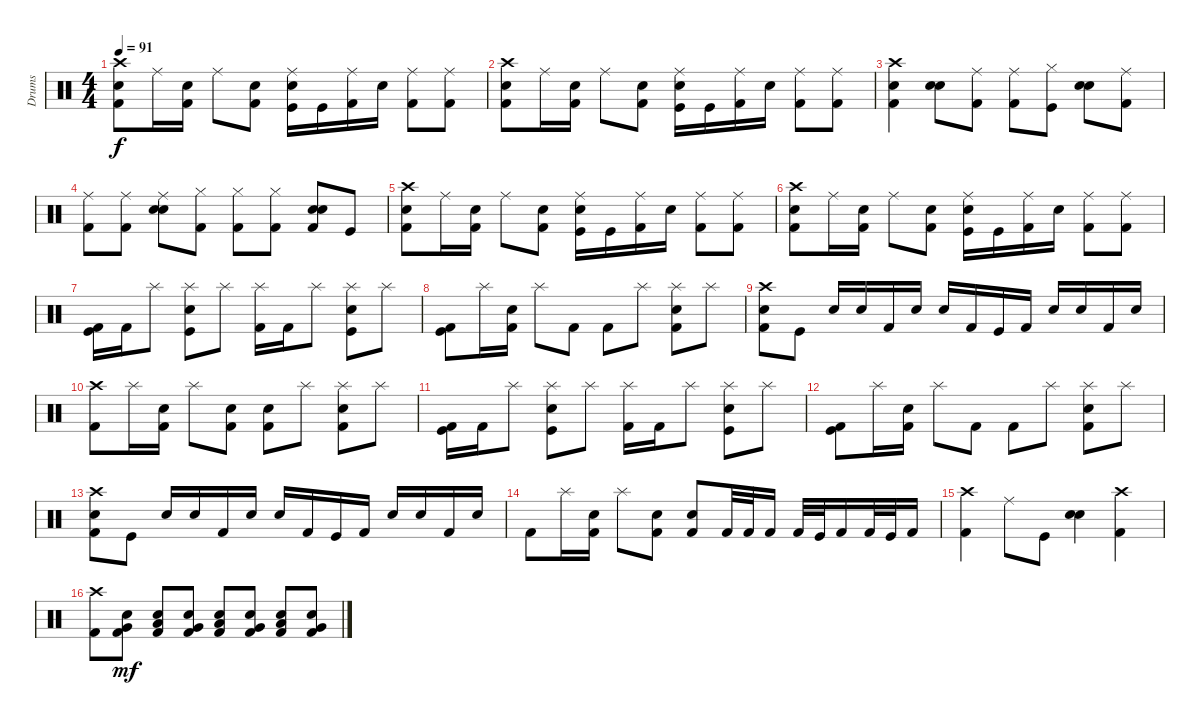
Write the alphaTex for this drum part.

\track ("Drums" "Drums") {instrument percussion}
\staff {score}
\articulation defaults
\ts (4 4)
\tempo 91
\clef neutral
\ks c
("Crash high (hit)" "Kick (hit) 2" "Snare (hit) 2").8{dy f} "Ride (middle)".16 ("Snare (hit) 2" "Kick (hit) 2").16 "Ride (middle)".8 ("Snare (hit) 2" "Kick (hit) 2").8 ("Ride (middle)" "Kick (hit)" "Snare (hit) 2").16 "Kick (hit)".16 ("Ride (middle)" "Kick (hit) 2").16 "Snare (hit) 2".16 ("Ride (middle)" "Kick (hit) 2").8 ("Ride (middle)" "Kick (hit) 2").8 |
("Crash high (hit)" "Kick (hit) 2" "Snare (hit) 2").8 "Ride (middle)".16 ("Snare (hit) 2" "Kick (hit) 2").16 "Ride (middle)".8 ("Snare (hit) 2" "Kick (hit) 2").8 ("Ride (middle)" "Kick (hit)" "Snare (hit) 2").16 "Kick (hit)".16 ("Ride (middle)" "Kick (hit) 2").16 "Snare (hit) 2".16 ("Ride (middle)" "Kick (hit) 2").8 ("Ride (middle)" "Kick (hit) 2").8 |
("Kick (hit) 2" "Snare (hit) 2" "Crash high (hit)").4 ("Snare (hit) 2" "Electric Snare (hit)").8 ("Ride (middle)" "Kick (hit) 2").8 ("Ride (middle)" "Kick (hit) 2").8 ("Hi-Hat (closed)" "Kick (hit)").8 ("Snare (hit) 2" "Electric Snare (hit)").8 ("Ride (middle)" "Kick (hit) 2").8 |
("Ride (middle)" "Kick (hit) 2").8 ("Ride (middle)" "Kick (hit) 2").8 ("Ride (middle)" "Snare (hit) 2" "Electric Snare (hit)").8 ("Hi-Hat (closed)" "Kick (hit) 2").8 ("Hi-Hat (closed)" "Kick (hit) 2").8 ("Hi-Hat (closed)" "Kick (hit) 2").8 ("Electric Snare (hit)" "Kick (hit) 2" "Snare (hit) 2").8 "Kick (hit)".8 |
("Crash high (hit)" "Kick (hit) 2" "Snare (hit) 2").8 "Ride (middle)".16 ("Snare (hit) 2" "Kick (hit) 2").16 "Ride (middle)".8 ("Snare (hit) 2" "Kick (hit) 2").8 ("Ride (middle)" "Kick (hit)" "Snare (hit) 2").16 "Kick (hit)".16 ("Ride (middle)" "Kick (hit) 2").16 "Snare (hit) 2".16 ("Ride (middle)" "Kick (hit) 2").8 ("Ride (middle)" "Kick (hit) 2").8 |
("Crash high (hit)" "Kick (hit) 2" "Snare (hit) 2").8 "Ride (middle)".16 ("Snare (hit) 2" "Kick (hit) 2").16 "Ride (middle)".8 ("Snare (hit) 2" "Kick (hit) 2").8 ("Ride (middle)" "Kick (hit)" "Snare (hit) 2").16 "Kick (hit)".16 ("Ride (middle)" "Kick (hit) 2").16 "Snare (hit) 2".16 ("Ride (middle)" "Kick (hit) 2").8 ("Ride (middle)" "Kick (hit) 2").8 |
("Kick (hit)" "Kick (hit) 2").16 "Kick (hit) 2".16 "Splash (hit)".8 ("Splash (hit)" "Electric Snare (hit)" "Kick (hit)").8 "Splash (hit)".8 ("Splash (hit)" "Kick (hit) 2").16 "Kick (hit) 2".16 "Splash (hit)".8 ("Splash (hit)" "Electric Snare (hit)" "Kick (hit)").8 "Splash (hit)".8 |
("Kick (hit) 2" "Kick (hit)").8 "Splash (hit)".16 ("Kick (hit) 2" "Snare (hit) 2").16 "Splash (hit)".8 "Kick (hit) 2".8 "Kick (hit) 2".8 "Splash (hit)".8 ("Splash (hit)" "Kick (hit) 2" "Snare (hit) 2").8 "Splash (hit)".8 |
("Crash high (hit)" "Kick (hit) 2" "Snare (hit) 2").8 "Kick (hit)".8 "Snare (hit) 2".16 "Electric Snare (hit)".16 "Kick (hit) 2".16 "Snare (hit) 2".16 "Electric Snare (hit)".16 "Kick (hit) 2".16 "Kick (hit)".16 "Kick (hit) 2".16 "Snare (hit) 2".16 "Electric Snare (hit)".16 "Kick (hit) 2".16 "Snare (hit) 2".16 |
("Kick (hit) 2" "Crash high (hit)").8 "Splash (hit)".16 ("Kick (hit) 2" "Snare (hit) 2").16 "Splash (hit)".8 ("Kick (hit) 2" "Electric Snare (hit)").8 ("Kick (hit) 2" "Snare (hit) 2").8 "Splash (hit)".8 ("Splash (hit)" "Kick (hit) 2" "Electric Snare (hit)").8 "Splash (hit)".8 |
("Kick (hit)" "Kick (hit) 2").16 "Kick (hit) 2".16 "Splash (hit)".8 ("Splash (hit)" "Electric Snare (hit)" "Kick (hit)").8 "Splash (hit)".8 ("Splash (hit)" "Kick (hit) 2").16 "Kick (hit) 2".16 "Splash (hit)".8 ("Splash (hit)" "Electric Snare (hit)" "Kick (hit)").8 "Splash (hit)".8 |
("Kick (hit) 2" "Kick (hit)").8 "Splash (hit)".16 ("Kick (hit) 2" "Snare (hit) 2").16 "Splash (hit)".8 "Kick (hit) 2".8 "Kick (hit) 2".8 "Splash (hit)".8 ("Splash (hit)" "Kick (hit) 2" "Snare (hit) 2").8 "Splash (hit)".8 |
("Crash high (hit)" "Kick (hit) 2" "Snare (hit) 2").8 "Kick (hit)".8 "Snare (hit) 2".16 "Electric Snare (hit)".16 "Kick (hit) 2".16 "Snare (hit) 2".16 "Electric Snare (hit)".16 "Kick (hit) 2".16 "Kick (hit)".16 "Kick (hit) 2".16 "Snare (hit) 2".16 "Electric Snare (hit)".16 "Kick (hit) 2".16 "Snare (hit) 2".16 |
"Kick (hit) 2".8 "Splash (hit)".16 ("Kick (hit) 2" "Snare (hit) 2").16 "Splash (hit)".8 ("Kick (hit) 2" "Electric Snare (hit)").8 ("Kick (hit) 2" "Snare (hit) 2").8 "Kick (hit) 2".32 "Kick (hit) 2".32 "Kick (hit) 2".16 "Kick (hit) 2".32 "Kick (hit)".32 "Kick (hit) 2".16 "Kick (hit) 2".32 "Kick (hit)".32 "Kick (hit) 2".16 |
("Kick (hit) 2" "Crash high (hit)").4 "Ride (middle)".8 "Kick (hit)".8 ("Snare (hit) 2" "Electric Snare (hit)").4 ("Kick (hit) 2" "Crash high (hit)").4 |
("Kick (hit) 2" "Crash high (hit)").8 ("Very Low Tom (hit)" "Electric Snare (hit)" "Kick (hit) 2").8{dy mf} ("Low Floor Tom (hit)" "Electric Snare (hit)" "Kick (hit) 2").8 ("Very Low Tom (hit)" "Electric Snare (hit)" "Kick (hit) 2").8 ("Low Floor Tom (hit)" "Electric Snare (hit)" "Kick (hit) 2").8 ("Very Low Tom (hit)" "Electric Snare (hit)" "Kick (hit) 2").8 ("Low Floor Tom (hit)" "Electric Snare (hit)" "Kick (hit) 2").8 ("Very Low Tom (hit)" "Electric Snare (hit)" "Kick (hit) 2").8
